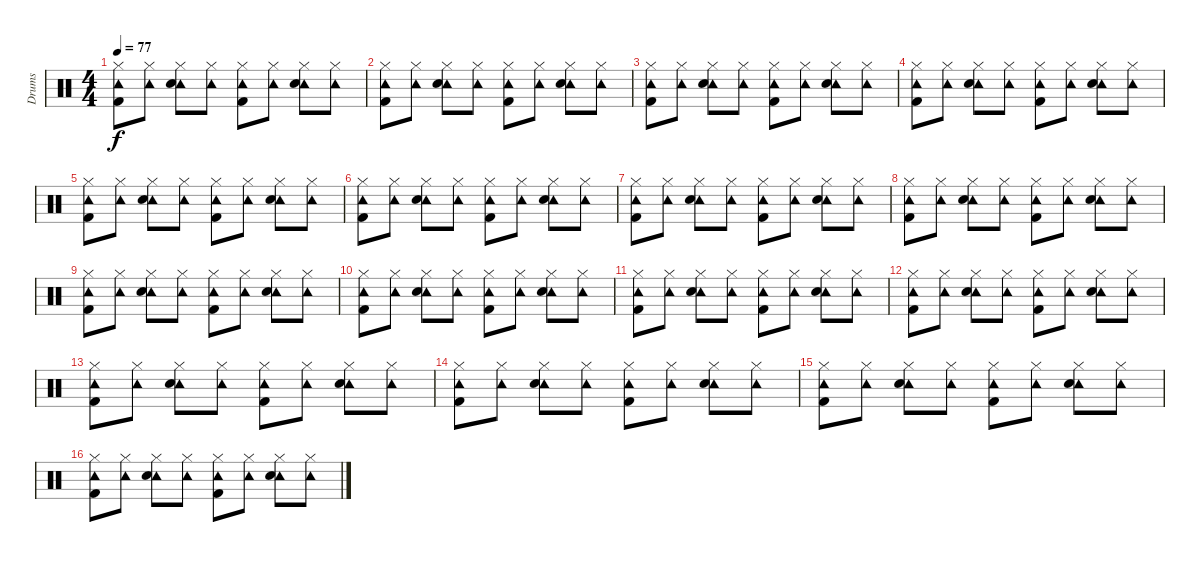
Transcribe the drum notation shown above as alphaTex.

\track ("Drums" "Drums") {instrument percussion}
\staff {score}
\articulation defaults
\ts (4 4)
\tempo 77
\clef neutral
\ks c
("Tambourine (hit)" "Hi-Hat (closed)" "Kick (hit) 2").8{dy f} ("Tambourine (hit)" "Hi-Hat (closed)").8 ("Tambourine (hit)" "Hi-Hat (closed)" "Electric Snare (hit)").8 ("Tambourine (hit)" "Hi-Hat (closed)").8 ("Tambourine (hit)" "Hi-Hat (closed)" "Kick (hit) 2").8 ("Tambourine (hit)" "Hi-Hat (closed)").8 ("Tambourine (hit)" "Hi-Hat (closed)" "Electric Snare (hit)").8 ("Tambourine (hit)" "Hi-Hat (closed)").8 |
("Tambourine (hit)" "Hi-Hat (closed)" "Kick (hit) 2").8 ("Tambourine (hit)" "Hi-Hat (closed)").8 ("Tambourine (hit)" "Hi-Hat (closed)" "Electric Snare (hit)").8 ("Tambourine (hit)" "Hi-Hat (closed)").8 ("Tambourine (hit)" "Hi-Hat (closed)" "Kick (hit) 2").8 ("Tambourine (hit)" "Hi-Hat (closed)").8 ("Tambourine (hit)" "Hi-Hat (closed)" "Electric Snare (hit)").8 ("Tambourine (hit)" "Hi-Hat (closed)").8 |
("Tambourine (hit)" "Hi-Hat (closed)" "Kick (hit) 2").8 ("Tambourine (hit)" "Hi-Hat (closed)").8 ("Tambourine (hit)" "Hi-Hat (closed)" "Electric Snare (hit)").8 ("Tambourine (hit)" "Hi-Hat (closed)").8 ("Tambourine (hit)" "Hi-Hat (closed)" "Kick (hit) 2").8 ("Tambourine (hit)" "Hi-Hat (closed)").8 ("Tambourine (hit)" "Hi-Hat (closed)" "Electric Snare (hit)").8 ("Tambourine (hit)" "Hi-Hat (closed)").8 |
("Tambourine (hit)" "Hi-Hat (closed)" "Kick (hit) 2").8 ("Tambourine (hit)" "Hi-Hat (closed)").8 ("Tambourine (hit)" "Hi-Hat (closed)" "Electric Snare (hit)").8 ("Tambourine (hit)" "Hi-Hat (closed)").8 ("Tambourine (hit)" "Hi-Hat (closed)" "Kick (hit) 2").8 ("Tambourine (hit)" "Hi-Hat (closed)").8 ("Tambourine (hit)" "Hi-Hat (closed)" "Electric Snare (hit)").8 ("Tambourine (hit)" "Hi-Hat (closed)").8 |
("Tambourine (hit)" "Hi-Hat (closed)" "Kick (hit) 2").8 ("Tambourine (hit)" "Hi-Hat (closed)").8 ("Tambourine (hit)" "Hi-Hat (closed)" "Electric Snare (hit)").8 ("Tambourine (hit)" "Hi-Hat (closed)").8 ("Tambourine (hit)" "Hi-Hat (closed)" "Kick (hit) 2").8 ("Tambourine (hit)" "Hi-Hat (closed)").8 ("Tambourine (hit)" "Hi-Hat (closed)" "Electric Snare (hit)").8 ("Tambourine (hit)" "Hi-Hat (closed)").8 |
("Tambourine (hit)" "Hi-Hat (closed)" "Kick (hit) 2").8 ("Tambourine (hit)" "Hi-Hat (closed)").8 ("Tambourine (hit)" "Hi-Hat (closed)" "Electric Snare (hit)").8 ("Tambourine (hit)" "Hi-Hat (closed)").8 ("Tambourine (hit)" "Hi-Hat (closed)" "Kick (hit) 2").8 ("Tambourine (hit)" "Hi-Hat (closed)").8 ("Tambourine (hit)" "Hi-Hat (closed)" "Electric Snare (hit)").8 ("Tambourine (hit)" "Hi-Hat (closed)").8 |
("Tambourine (hit)" "Hi-Hat (closed)" "Kick (hit) 2").8 ("Tambourine (hit)" "Hi-Hat (closed)").8 ("Tambourine (hit)" "Hi-Hat (closed)" "Electric Snare (hit)").8 ("Tambourine (hit)" "Hi-Hat (closed)").8 ("Tambourine (hit)" "Hi-Hat (closed)" "Kick (hit) 2").8 ("Tambourine (hit)" "Hi-Hat (closed)").8 ("Tambourine (hit)" "Hi-Hat (closed)" "Electric Snare (hit)").8 ("Tambourine (hit)" "Hi-Hat (closed)").8 |
("Tambourine (hit)" "Hi-Hat (closed)" "Kick (hit) 2").8 ("Tambourine (hit)" "Hi-Hat (closed)").8 ("Tambourine (hit)" "Hi-Hat (closed)" "Electric Snare (hit)").8 ("Tambourine (hit)" "Hi-Hat (closed)").8 ("Tambourine (hit)" "Hi-Hat (closed)" "Kick (hit) 2").8 ("Tambourine (hit)" "Hi-Hat (closed)").8 ("Tambourine (hit)" "Hi-Hat (closed)" "Electric Snare (hit)").8 ("Tambourine (hit)" "Hi-Hat (closed)").8 |
("Tambourine (hit)" "Hi-Hat (closed)" "Kick (hit) 2").8 ("Tambourine (hit)" "Hi-Hat (closed)").8 ("Tambourine (hit)" "Hi-Hat (closed)" "Electric Snare (hit)").8 ("Tambourine (hit)" "Hi-Hat (closed)").8 ("Tambourine (hit)" "Hi-Hat (closed)" "Kick (hit) 2").8 ("Tambourine (hit)" "Hi-Hat (closed)").8 ("Tambourine (hit)" "Hi-Hat (closed)" "Electric Snare (hit)").8 ("Tambourine (hit)" "Hi-Hat (closed)").8 |
("Tambourine (hit)" "Hi-Hat (closed)" "Kick (hit) 2").8 ("Tambourine (hit)" "Hi-Hat (closed)").8 ("Tambourine (hit)" "Hi-Hat (closed)" "Electric Snare (hit)").8 ("Tambourine (hit)" "Hi-Hat (closed)").8 ("Tambourine (hit)" "Hi-Hat (closed)" "Kick (hit) 2").8 ("Tambourine (hit)" "Hi-Hat (closed)").8 ("Tambourine (hit)" "Hi-Hat (closed)" "Electric Snare (hit)").8 ("Tambourine (hit)" "Hi-Hat (closed)").8 |
("Tambourine (hit)" "Hi-Hat (closed)" "Kick (hit) 2").8 ("Tambourine (hit)" "Hi-Hat (closed)").8 ("Tambourine (hit)" "Hi-Hat (closed)" "Electric Snare (hit)").8 ("Tambourine (hit)" "Hi-Hat (closed)").8 ("Tambourine (hit)" "Hi-Hat (closed)" "Kick (hit) 2").8 ("Tambourine (hit)" "Hi-Hat (closed)").8 ("Tambourine (hit)" "Hi-Hat (closed)" "Electric Snare (hit)").8 ("Tambourine (hit)" "Hi-Hat (closed)").8 |
("Tambourine (hit)" "Hi-Hat (closed)" "Kick (hit) 2").8 ("Tambourine (hit)" "Hi-Hat (closed)").8 ("Tambourine (hit)" "Hi-Hat (closed)" "Electric Snare (hit)").8 ("Tambourine (hit)" "Hi-Hat (closed)").8 ("Tambourine (hit)" "Hi-Hat (closed)" "Kick (hit) 2").8 ("Tambourine (hit)" "Hi-Hat (closed)").8 ("Tambourine (hit)" "Hi-Hat (closed)" "Electric Snare (hit)").8 ("Tambourine (hit)" "Hi-Hat (closed)").8 |
("Tambourine (hit)" "Hi-Hat (closed)" "Kick (hit) 2").8 ("Tambourine (hit)" "Hi-Hat (closed)").8 ("Tambourine (hit)" "Hi-Hat (closed)" "Electric Snare (hit)").8 ("Tambourine (hit)" "Hi-Hat (closed)").8 ("Tambourine (hit)" "Hi-Hat (closed)" "Kick (hit) 2").8 ("Tambourine (hit)" "Hi-Hat (closed)").8 ("Tambourine (hit)" "Hi-Hat (closed)" "Electric Snare (hit)").8 ("Tambourine (hit)" "Hi-Hat (closed)").8 |
("Tambourine (hit)" "Hi-Hat (closed)" "Kick (hit) 2").8 ("Tambourine (hit)" "Hi-Hat (closed)").8 ("Tambourine (hit)" "Hi-Hat (closed)" "Electric Snare (hit)").8 ("Tambourine (hit)" "Hi-Hat (closed)").8 ("Tambourine (hit)" "Hi-Hat (closed)" "Kick (hit) 2").8 ("Tambourine (hit)" "Hi-Hat (closed)").8 ("Tambourine (hit)" "Hi-Hat (closed)" "Electric Snare (hit)").8 ("Tambourine (hit)" "Hi-Hat (closed)").8 |
("Tambourine (hit)" "Hi-Hat (closed)" "Kick (hit) 2").8 ("Tambourine (hit)" "Hi-Hat (closed)").8 ("Tambourine (hit)" "Hi-Hat (closed)" "Electric Snare (hit)").8 ("Tambourine (hit)" "Hi-Hat (closed)").8 ("Tambourine (hit)" "Hi-Hat (closed)" "Kick (hit) 2").8 ("Tambourine (hit)" "Hi-Hat (closed)").8 ("Tambourine (hit)" "Hi-Hat (closed)" "Electric Snare (hit)").8 ("Tambourine (hit)" "Hi-Hat (closed)").8 |
("Tambourine (hit)" "Hi-Hat (closed)" "Kick (hit) 2").8 ("Tambourine (hit)" "Hi-Hat (closed)").8 ("Tambourine (hit)" "Hi-Hat (closed)" "Electric Snare (hit)").8 ("Tambourine (hit)" "Hi-Hat (closed)").8 ("Tambourine (hit)" "Hi-Hat (closed)" "Kick (hit) 2").8 ("Tambourine (hit)" "Hi-Hat (closed)").8 ("Tambourine (hit)" "Hi-Hat (closed)" "Electric Snare (hit)").8 ("Tambourine (hit)" "Hi-Hat (closed)").8
